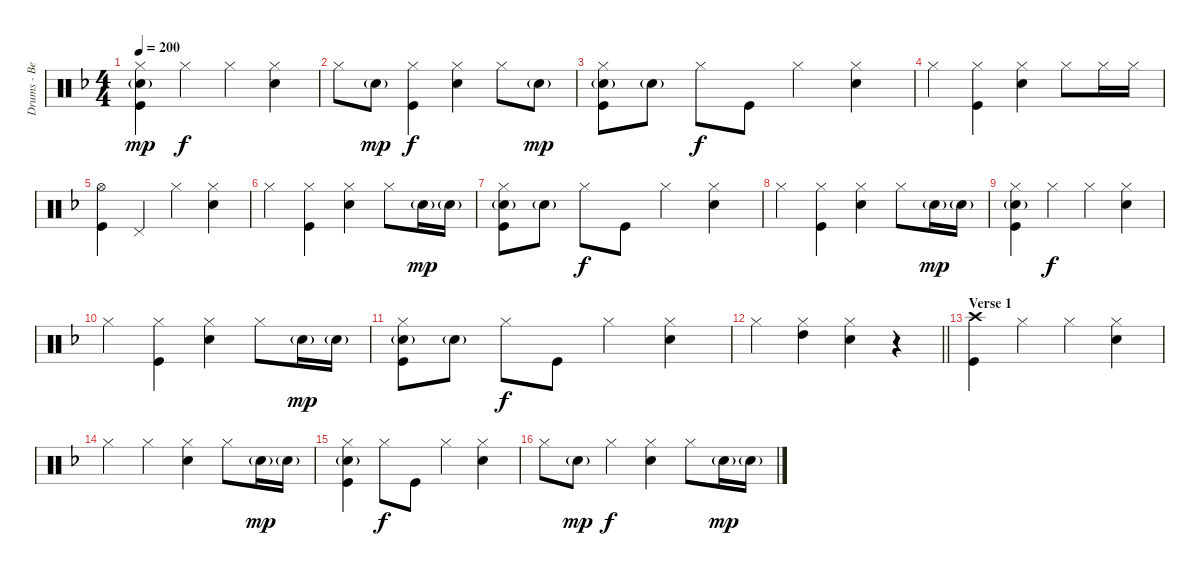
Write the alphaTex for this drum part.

\track ("Drums - Ben Johnston" "Drums - Be") {instrument percussion}
\staff {score}
\articulation defaults
\ts (4 4)
\tempo 200
\clef neutral
\ks f
("Hi-Hat (closed)" "Snare (hit) 2"{g} "Kick (hit)").4{dy mp} "Hi-Hat (closed)".4{dy f} "Hi-Hat (closed)".4 ("Hi-Hat (closed)" "Snare (hit) 2").4 |
"Hi-Hat (closed)".8 "Snare (hit) 2"{g}.8{dy mp} ("Hi-Hat (closed)" "Kick (hit)").4{dy f} ("Hi-Hat (closed)" "Snare (hit) 2").4 "Hi-Hat (closed)".8 "Snare (hit) 2"{g}.8{dy mp} |
("Hi-Hat (closed)" "Snare (hit) 2"{g} "Kick (hit)").8 "Snare (hit) 2"{g}.8 "Hi-Hat (closed)".8{dy f} "Kick (hit)".8 "Hi-Hat (closed)".4 ("Hi-Hat (closed)" "Snare (hit) 2").4 |
"Hi-Hat (closed)".4 ("Hi-Hat (closed)" "Kick (hit)").4 ("Hi-Hat (closed)" "Snare (hit) 2").4 "Hi-Hat (closed)".8 "Hi-Hat (closed)".16 "Hi-Hat (closed)".16 |
("Hi-Hat (open)" "Kick (hit)").4 "Pedal Hi-Hat (hit)".4 "Hi-Hat (closed)".4 ("Hi-Hat (closed)" "Snare (hit) 2").4 |
"Hi-Hat (closed)".4 ("Hi-Hat (closed)" "Kick (hit)").4 ("Hi-Hat (closed)" "Snare (hit) 2").4 "Hi-Hat (closed)".8 "Snare (hit) 2"{g}.16{dy mp} "Snare (hit) 2"{g}.16 |
("Hi-Hat (closed)" "Snare (hit) 2"{g} "Kick (hit)").8 "Snare (hit) 2"{g}.8 "Hi-Hat (closed)".8{dy f} "Kick (hit)".8 "Hi-Hat (closed)".4 ("Hi-Hat (closed)" "Snare (hit) 2").4 |
"Hi-Hat (closed)".4 ("Hi-Hat (closed)" "Kick (hit)").4 ("Hi-Hat (closed)" "Snare (hit) 2").4 "Hi-Hat (closed)".8 "Snare (hit) 2"{g}.16{dy mp} "Snare (hit) 2"{g}.16 |
("Hi-Hat (closed)" "Snare (hit) 2"{g} "Kick (hit)").4 "Hi-Hat (closed)".4{dy f} "Hi-Hat (closed)".4 ("Hi-Hat (closed)" "Snare (hit) 2").4 |
"Hi-Hat (closed)".4 ("Hi-Hat (closed)" "Kick (hit)").4 ("Hi-Hat (closed)" "Snare (hit) 2").4 "Hi-Hat (closed)".8 "Snare (hit) 2"{g}.16{dy mp} "Snare (hit) 2"{g}.16 |
("Hi-Hat (closed)" "Snare (hit) 2"{g} "Kick (hit)").8 "Snare (hit) 2"{g}.8 "Hi-Hat (closed)".8{dy f} "Kick (hit)".8 "Hi-Hat (closed)".4 ("Hi-Hat (closed)" "Snare (hit) 2").4 |
\barLineRight lightlight "Hi-Hat (closed)".4
("Hi-Hat (closed)" "High Tom (hit)").4 ("Hi-Hat (closed)" "Snare (hit) 2").4 r.4 |
\section ("" "Verse 1")
("Crash high (hit)" "Kick (hit)").4 "Hi-Hat (closed)".4 "Hi-Hat (closed)".4 ("Hi-Hat (closed)" "Snare (hit) 2").4 |
"Hi-Hat (closed)".4 "Hi-Hat (closed)".4 ("Hi-Hat (closed)" "Snare (hit) 2").4 "Hi-Hat (closed)".8 "Snare (hit) 2"{g}.16{dy mp} "Snare (hit) 2"{g}.16 |
("Hi-Hat (closed)" "Snare (hit) 2"{g} "Kick (hit)").4 "Hi-Hat (closed)".8{dy f} "Kick (hit)".8 "Hi-Hat (closed)".4 ("Hi-Hat (closed)" "Snare (hit) 2").4 |
"Hi-Hat (closed)".8 "Snare (hit) 2"{g}.8{dy mp} "Hi-Hat (closed)".4{dy f} ("Hi-Hat (closed)" "Snare (hit) 2").4 "Hi-Hat (closed)".8 "Snare (hit) 2"{g}.16{dy mp} "Snare (hit) 2"{g}.16
